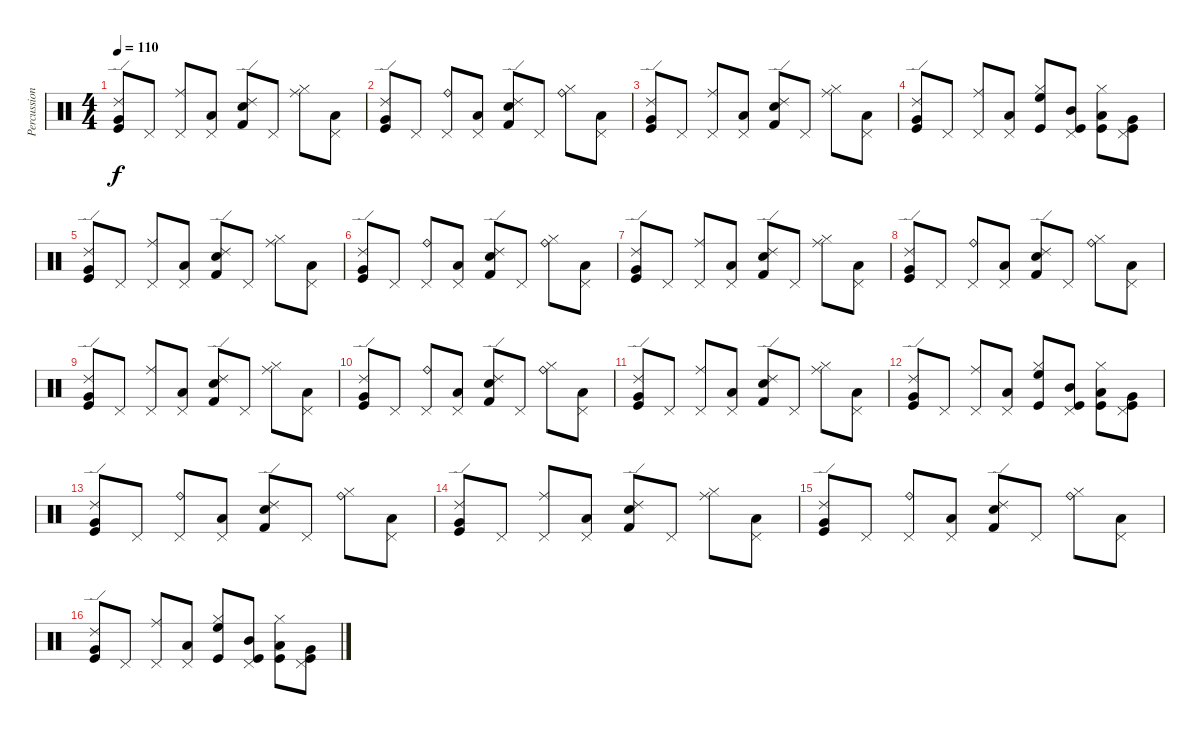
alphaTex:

\track ("Percussions" "Percussion") {instrument percussion}
\staff {score}
\articulation defaults
\ts (4 4)
\tempo 110
\clef neutral
\ks c
("Ride (edge) 2" "Very Low Tom (hit)" "Kick (hit)").8{dy f} "Pedal Hi-Hat (hit)".8 ("Ride (middle)" "Pedal Hi-Hat (hit)").8 ("Pedal Hi-Hat (hit)" "Low Tom (hit)").8 ("Ride (edge) 2" "Kick (hit) 2" "Snare (hit) 2").8 "Pedal Hi-Hat (hit)".8 ("Hi-Hat (closed)" "Ride (middle)").8 ("Pedal Hi-Hat (hit)" "Low Tom (hit)").8 |
("Ride (edge) 2" "Very Low Tom (hit)" "Kick (hit)").8 "Pedal Hi-Hat (hit)".8 ("Ride (bell)" "Pedal Hi-Hat (hit)").8 ("Pedal Hi-Hat (hit)" "Low Tom (hit)").8 ("Ride (edge) 2" "Kick (hit) 2" "Snare (hit) 2").8 "Pedal Hi-Hat (hit)".8 ("Hi-Hat (closed)" "Ride (bell)").8 ("Pedal Hi-Hat (hit)" "Low Tom (hit)").8 |
("Ride (edge) 2" "Very Low Tom (hit)" "Kick (hit)").8 "Pedal Hi-Hat (hit)".8 ("Ride (middle)" "Pedal Hi-Hat (hit)").8 ("Pedal Hi-Hat (hit)" "Low Tom (hit)").8 ("Ride (edge) 2" "Kick (hit) 2" "Snare (hit) 2").8 "Pedal Hi-Hat (hit)".8 ("Hi-Hat (closed)" "Ride (middle)").8 ("Pedal Hi-Hat (hit)" "Low Tom (hit)").8 |
("Ride (edge) 2" "Very Low Tom (hit)" "Kick (hit)").8 "Pedal Hi-Hat (hit)".8 ("Ride (middle)" "Pedal Hi-Hat (hit)").8 ("Pedal Hi-Hat (hit)" "Low Tom (hit)").8 ("Hi-Hat (closed)" "Kick (hit)" "High Floor Tom (hit)").8 ("Pedal Hi-Hat (hit)" "Mid Tom (hit)" "Kick (hit)").8 ("Hi-Hat (closed)" "Low Tom (hit)" "Kick (hit)").8 ("Kick (hit)" "Pedal Hi-Hat (hit)" "Very Low Tom (hit)").8 |
("Ride (edge) 2" "Very Low Tom (hit)" "Kick (hit)").8 "Pedal Hi-Hat (hit)".8 ("Ride (middle)" "Pedal Hi-Hat (hit)").8 ("Pedal Hi-Hat (hit)" "Low Tom (hit)").8 ("Ride (edge) 2" "Kick (hit) 2" "Snare (hit) 2").8 "Pedal Hi-Hat (hit)".8 ("Hi-Hat (closed)" "Ride (middle)").8 ("Pedal Hi-Hat (hit)" "Low Tom (hit)").8 |
("Ride (edge) 2" "Very Low Tom (hit)" "Kick (hit)").8 "Pedal Hi-Hat (hit)".8 ("Ride (bell)" "Pedal Hi-Hat (hit)").8 ("Pedal Hi-Hat (hit)" "Low Tom (hit)").8 ("Ride (edge) 2" "Kick (hit) 2" "Snare (hit) 2").8 "Pedal Hi-Hat (hit)".8 ("Hi-Hat (closed)" "Ride (bell)").8 ("Pedal Hi-Hat (hit)" "Low Tom (hit)").8 |
("Ride (edge) 2" "Very Low Tom (hit)" "Kick (hit)").8 "Pedal Hi-Hat (hit)".8 ("Ride (middle)" "Pedal Hi-Hat (hit)").8 ("Pedal Hi-Hat (hit)" "Low Tom (hit)").8 ("Ride (edge) 2" "Kick (hit) 2" "Snare (hit) 2").8 "Pedal Hi-Hat (hit)".8 ("Hi-Hat (closed)" "Ride (middle)").8 ("Pedal Hi-Hat (hit)" "Low Tom (hit)").8 |
("Ride (edge) 2" "Very Low Tom (hit)" "Kick (hit)").8 "Pedal Hi-Hat (hit)".8 ("Ride (bell)" "Pedal Hi-Hat (hit)").8 ("Pedal Hi-Hat (hit)" "Low Tom (hit)").8 ("Ride (edge) 2" "Kick (hit) 2" "Snare (hit) 2").8 "Pedal Hi-Hat (hit)".8 ("Hi-Hat (closed)" "Ride (bell)").8 ("Pedal Hi-Hat (hit)" "Low Tom (hit)").8 |
("Ride (edge) 2" "Very Low Tom (hit)" "Kick (hit)").8 "Pedal Hi-Hat (hit)".8 ("Ride (middle)" "Pedal Hi-Hat (hit)").8 ("Pedal Hi-Hat (hit)" "Low Tom (hit)").8 ("Ride (edge) 2" "Kick (hit) 2" "Snare (hit) 2").8 "Pedal Hi-Hat (hit)".8 ("Hi-Hat (closed)" "Ride (middle)").8 ("Pedal Hi-Hat (hit)" "Low Tom (hit)").8 |
("Ride (edge) 2" "Very Low Tom (hit)" "Kick (hit)").8 "Pedal Hi-Hat (hit)".8 ("Ride (bell)" "Pedal Hi-Hat (hit)").8 ("Pedal Hi-Hat (hit)" "Low Tom (hit)").8 ("Ride (edge) 2" "Kick (hit) 2" "Snare (hit) 2").8 "Pedal Hi-Hat (hit)".8 ("Hi-Hat (closed)" "Ride (bell)").8 ("Pedal Hi-Hat (hit)" "Low Tom (hit)").8 |
("Ride (edge) 2" "Very Low Tom (hit)" "Kick (hit)").8 "Pedal Hi-Hat (hit)".8 ("Ride (middle)" "Pedal Hi-Hat (hit)").8 ("Pedal Hi-Hat (hit)" "Low Tom (hit)").8 ("Ride (edge) 2" "Kick (hit) 2" "Snare (hit) 2").8 "Pedal Hi-Hat (hit)".8 ("Hi-Hat (closed)" "Ride (middle)").8 ("Pedal Hi-Hat (hit)" "Low Tom (hit)").8 |
("Ride (edge) 2" "Very Low Tom (hit)" "Kick (hit)").8 "Pedal Hi-Hat (hit)".8 ("Ride (middle)" "Pedal Hi-Hat (hit)").8 ("Pedal Hi-Hat (hit)" "Low Tom (hit)").8 ("Hi-Hat (closed)" "Kick (hit)" "High Floor Tom (hit)").8 ("Pedal Hi-Hat (hit)" "Mid Tom (hit)" "Kick (hit)").8 ("Hi-Hat (closed)" "Low Tom (hit)" "Kick (hit)").8 ("Kick (hit)" "Pedal Hi-Hat (hit)" "Very Low Tom (hit)").8 |
("Ride (edge) 2" "Very Low Tom (hit)" "Kick (hit)").8 "Pedal Hi-Hat (hit)".8 ("Ride (bell)" "Pedal Hi-Hat (hit)").8 ("Pedal Hi-Hat (hit)" "Low Tom (hit)").8 ("Ride (edge) 2" "Kick (hit) 2" "Snare (hit) 2").8 "Pedal Hi-Hat (hit)".8 ("Hi-Hat (closed)" "Ride (bell)").8 ("Pedal Hi-Hat (hit)" "Low Tom (hit)").8 |
("Ride (edge) 2" "Very Low Tom (hit)" "Kick (hit)").8 "Pedal Hi-Hat (hit)".8 ("Ride (middle)" "Pedal Hi-Hat (hit)").8 ("Pedal Hi-Hat (hit)" "Low Tom (hit)").8 ("Ride (edge) 2" "Kick (hit) 2" "Snare (hit) 2").8 "Pedal Hi-Hat (hit)".8 ("Hi-Hat (closed)" "Ride (middle)").8 ("Pedal Hi-Hat (hit)" "Low Tom (hit)").8 |
("Ride (edge) 2" "Very Low Tom (hit)" "Kick (hit)").8 "Pedal Hi-Hat (hit)".8 ("Ride (bell)" "Pedal Hi-Hat (hit)").8 ("Pedal Hi-Hat (hit)" "Low Tom (hit)").8 ("Ride (edge) 2" "Kick (hit) 2" "Snare (hit) 2").8 "Pedal Hi-Hat (hit)".8 ("Hi-Hat (closed)" "Ride (bell)").8 ("Pedal Hi-Hat (hit)" "Low Tom (hit)").8 |
("Ride (edge) 2" "Very Low Tom (hit)" "Kick (hit)").8 "Pedal Hi-Hat (hit)".8 ("Ride (middle)" "Pedal Hi-Hat (hit)").8 ("Pedal Hi-Hat (hit)" "Low Tom (hit)").8 ("Hi-Hat (closed)" "Kick (hit)" "High Floor Tom (hit)").8 ("Pedal Hi-Hat (hit)" "Mid Tom (hit)" "Kick (hit)").8 ("Hi-Hat (closed)" "Low Tom (hit)" "Kick (hit)").8 ("Kick (hit)" "Pedal Hi-Hat (hit)" "Very Low Tom (hit)").8
